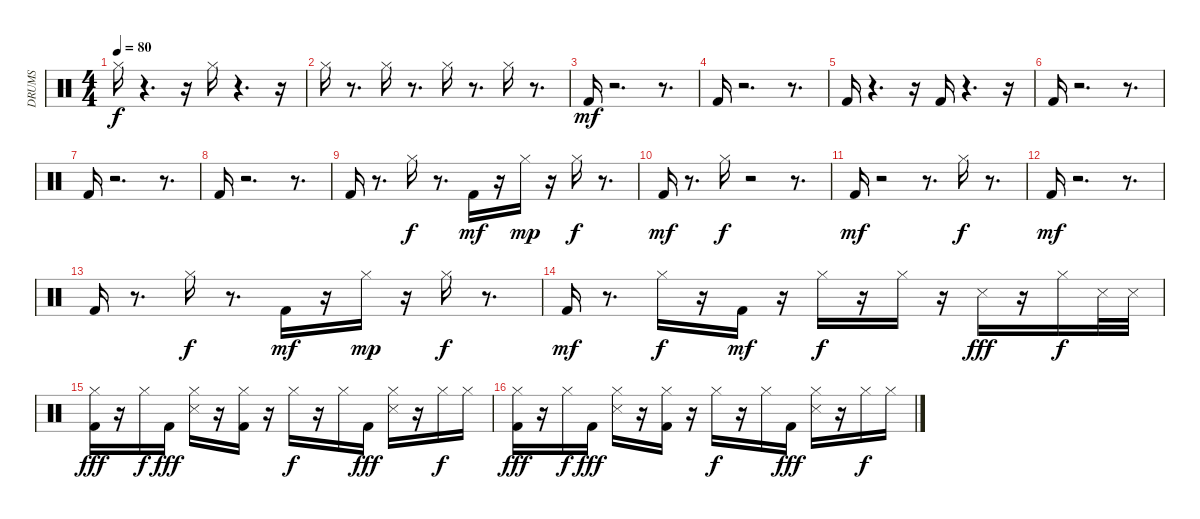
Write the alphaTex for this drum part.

\track ("DRUMS" "DRUMS") {instrument percussion}
\staff {score}
\articulation defaults
\ts (4 4)
\tempo 80
\clef neutral
\ks c "Hi-Hat (closed)".16{dy f}
r.4{d} r.16 "Hi-Hat (closed)".16 r.4{d} r.16 |
"Hi-Hat (closed)".16 r.8{d} "Hi-Hat (closed)".16 r.8{d} "Hi-Hat (closed)".16 r.8{d} "Hi-Hat (closed)".16 r.8{d} |
"Kick (hit) 2".16{dy mf} r.2{d} r.8{d} |
"Kick (hit) 2".16 r.2{d} r.8{d} |
"Kick (hit) 2".16 r.4{d} r.16 "Kick (hit) 2".16 r.4{d} r.16 |
"Kick (hit) 2".16 r.2{d} r.8{d} |
"Kick (hit) 2".16 r.2{d} r.8{d} |
"Kick (hit) 2".16 r.2{d} r.8{d} |
"Kick (hit) 2".16 r.8{d} "Hi-Hat (closed)".16{dy f} r.8{d} "Kick (hit) 2".16{dy mf} r.16 "Hi-Hat (closed)".16{dy mp} r.16 "Hi-Hat (closed)".16{dy f} r.8{d} |
"Kick (hit) 2".16{dy mf} r.8{d} "Hi-Hat (closed)".16{dy f} r.2 r.8{d} |
"Kick (hit) 2".16{dy mf} r.2 r.8{d} "Hi-Hat (closed)".16{dy f} r.8{d} |
"Kick (hit) 2".16{dy mf} r.2{d} r.8{d} |
"Kick (hit) 2".16 r.8{d} "Hi-Hat (closed)".16{dy f} r.8{d} "Kick (hit) 2".16{dy mf} r.16 "Hi-Hat (closed)".16{dy mp} r.16 "Hi-Hat (closed)".16{dy f} r.8{d} |
"Kick (hit) 2".16{dy mf} r.8{d} "Hi-Hat (closed)".16{dy f} r.16 "Kick (hit) 2".16{dy mf} r.16 "Hi-Hat (closed)".16{dy f} r.16 "Hi-Hat (closed)".16 r.16 "Metronome (hit)".16{dy fff} r.16 "Hi-Hat (closed)".16{dy f} "Metronome (hit)".32 "Metronome (hit)".32 |
("Kick (hit) 2" "Hi-Hat (closed)").16{dy fff} r.16 "Hi-Hat (closed)".16{dy f} "Kick (hit) 2".16{dy fff} ("Hi-Hat (closed)" "Metronome (hit)").16 r.16 ("Kick (hit) 2" "Hi-Hat (closed)").16 r.16 "Hi-Hat (closed)".16{dy f} r.16 "Hi-Hat (closed)".16 "Kick (hit) 2".16{dy fff} ("Hi-Hat (closed)" "Metronome (hit)").16 r.16 "Hi-Hat (closed)".16{dy f} "Hi-Hat (closed)".16 |
("Kick (hit) 2" "Hi-Hat (closed)").16{dy fff} r.16 "Hi-Hat (closed)".16{dy f} "Kick (hit) 2".16{dy fff} ("Hi-Hat (closed)" "Metronome (hit)").16 r.16 ("Kick (hit) 2" "Hi-Hat (closed)").16 r.16 "Hi-Hat (closed)".16{dy f} r.16 "Hi-Hat (closed)".16 "Kick (hit) 2".16{dy fff} ("Hi-Hat (closed)" "Metronome (hit)").16 r.16 "Hi-Hat (closed)".16{dy f} "Hi-Hat (closed)".16
